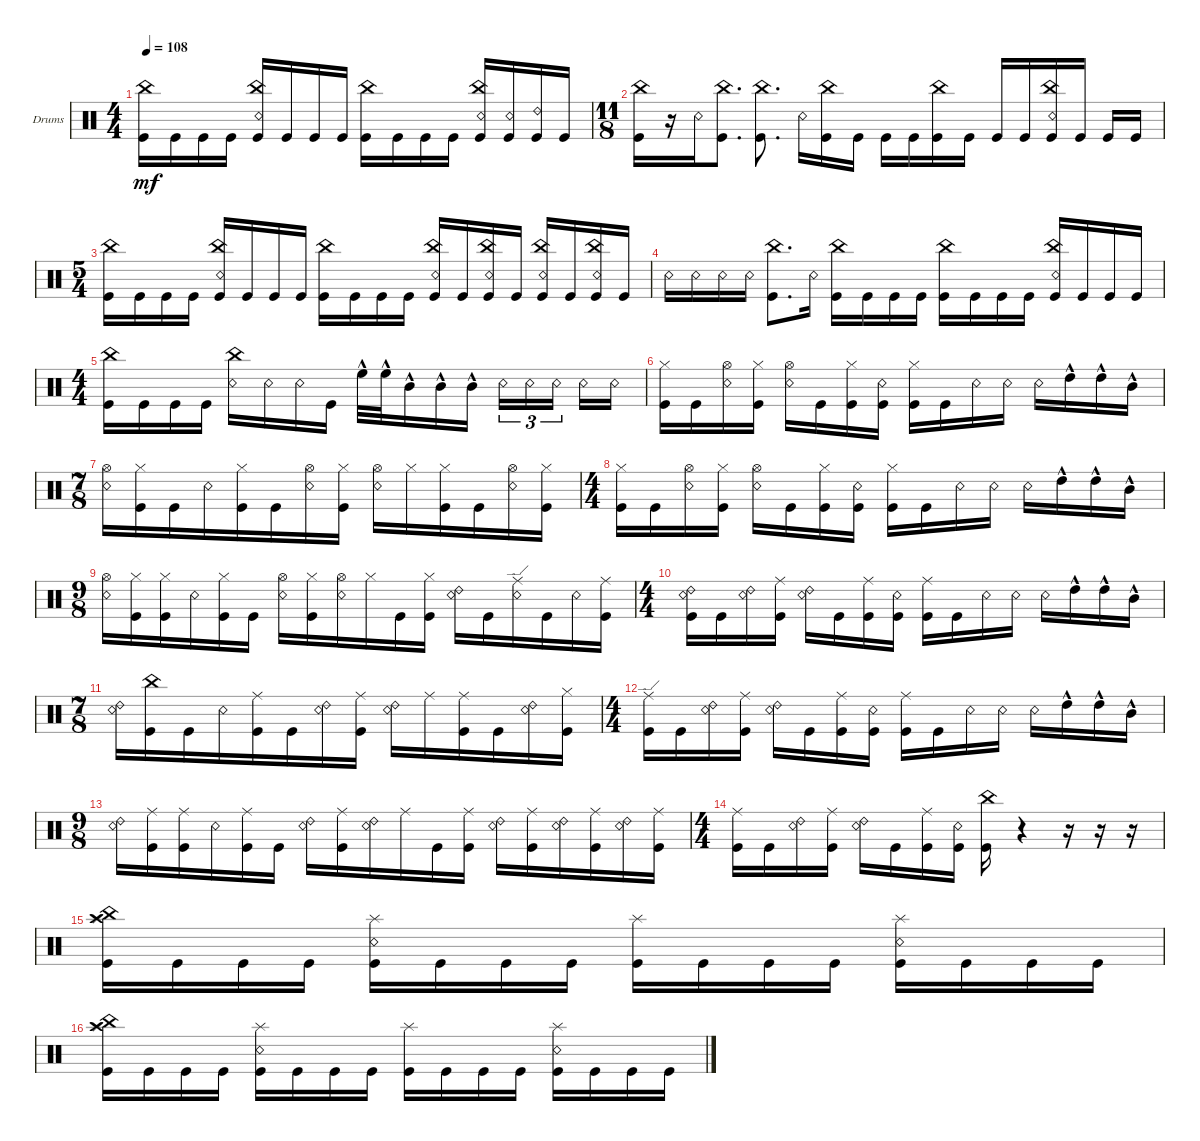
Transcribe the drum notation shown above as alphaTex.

\defaultSystemsLayout 4
\bracketExtendMode groupsimilarinstruments
\firstSystemTrackNameOrientation horizontal
\otherSystemsTrackNameOrientation horizontal
\track ("Drumkit" "Drums") {solo instrument percussion}
\staff {score}
\articulation defaults
\ts (4 4)
\tempo 108
\clef neutral
\ks c
("Kick (hit)" "China (hit)").16{dy mf} "Kick (hit)".16 "Kick (hit)".16 "Kick (hit)".16 ("Kick (hit)" "China (hit)" "Snare (rim shot)").16 "Kick (hit)".16 "Kick (hit)".16 "Kick (hit)".16 ("Kick (hit)" "China (hit)").16 "Kick (hit)".16 "Kick (hit)".16 "Kick (hit)".16 ("Kick (hit)" "China (hit)" "Snare (rim shot)").16 ("Kick (hit)" "Snare (rim shot)").16 ("Kick (hit)" "Ride (bell) 2").16 "Kick (hit)".16 |
\ts (11 8)
("Kick (hit)" "China (hit)").16 r.16 "Snare (rim shot)".16 ("Kick (hit)" "China (hit)").8{d} ("Kick (hit)" "China (hit)").8{d} "Snare (rim shot)".16 ("Kick (hit)" "China (hit)").16 "Kick (hit)".16 "Kick (hit)".16 "Kick (hit)".16 ("Kick (hit)" "China (hit)").16 "Kick (hit)".16 "Kick (hit)".16 "Kick (hit)".16 ("Kick (hit)" "China (hit)" "Snare (rim shot)").16 "Kick (hit)".16 "Kick (hit)".16 "Kick (hit)".16 |
\ts (5 4)
("Kick (hit)" "China (hit)").16 "Kick (hit)".16 "Kick (hit)".16 "Kick (hit)".16 ("Kick (hit)" "China (hit)" "Snare (rim shot)").16 "Kick (hit)".16 "Kick (hit)".16 "Kick (hit)".16 ("Kick (hit)" "China (hit)").16 "Kick (hit)".16 "Kick (hit)".16 "Kick (hit)".16 ("Kick (hit)" "China (hit)" "Snare (rim shot)").16 "Kick (hit)".16 ("Kick (hit)" "China (hit)" "Snare (rim shot)").16 "Kick (hit)".16 ("Kick (hit)" "China (hit)" "Snare (rim shot)").16 "Kick (hit)".16 ("Kick (hit)" "China (hit)" "Snare (rim shot)").16 "Kick (hit)".16 |
"Snare (rim shot)".16 "Snare (rim shot)".16 "Snare (rim shot)".16 "Snare (rim shot)".16 ("Kick (hit)" "China (hit)").8{d} "Snare (rim shot)".16 ("Kick (hit)" "China (hit)").16 "Kick (hit)".16 "Kick (hit)".16 "Kick (hit)".16 ("Kick (hit)" "China (hit)").16 "Kick (hit)".16 "Kick (hit)".16 "Kick (hit)".16 ("Kick (hit)" "China (hit)" "Snare (rim shot)").16 "Kick (hit)".16 "Kick (hit)".16 "Kick (hit)".16 |
\ts (4 4)
("Kick (hit)" "China (hit)").16 "Kick (hit)".16 "Kick (hit)".16 "Kick (hit)".16 ("China (hit)" "Snare (rim shot)").16 "Snare (rim shot)".16 "Snare (rim shot)".16 "Kick (hit)".16 "High Floor Tom (hit)"{hac}.32 "High Floor Tom (hit)"{hac}.32 "Mid Tom (hit)"{hac}.16 "Mid Tom (hit)"{hac}.16 "Mid Tom (hit)"{hac}.16 "Snare (rim shot)".16{tu (3 2)} "Snare (rim shot)".16{tu (3 2)} "Snare (rim shot)".16{tu (3 2)} "Snare (rim shot)".16 "Snare (rim shot)".16 |
("Kick (hit)" "Hi-Hat (closed)").16 "Kick (hit)".16 ("Hi-Hat (open)" "Snare (rim shot)").16 ("Hi-Hat (closed)" "Kick (hit)").16 ("Snare (rim shot)" "Hi-Hat (open)").16 "Kick (hit)".16 ("Kick (hit)" "Hi-Hat (closed)").16 ("Kick (hit)" "Snare (rim shot)").16 ("Kick (hit)" "Hi-Hat (closed)").16 "Kick (hit)".16 "Snare (rim shot)".16 "Snare (rim shot)".16 "Snare (rim shot)".16 "High Tom (hit)"{hac}.16 "High Tom (hit)"{hac}.16 "Mid Tom (hit)"{hac}.16 |
\ts (7 8)
("Snare (rim shot)" "Hi-Hat (open)").16 ("Kick (hit)" "Hi-Hat (closed)").16 "Kick (hit)".16 "Snare (rim shot)".16 ("Kick (hit)" "Hi-Hat (closed)").16 "Kick (hit)".16 ("Snare (rim shot)" "Hi-Hat (open)").16 ("Kick (hit)" "Hi-Hat (closed)").16 ("Snare (rim shot)" "Hi-Hat (open)").16 "Hi-Hat (closed)".16 ("Kick (hit)" "Hi-Hat (closed)").16 "Kick (hit)".16 ("Snare (rim shot)" "Hi-Hat (open)").16 ("Kick (hit)" "Hi-Hat (closed)").16 |
\ts (4 4)
("Kick (hit)" "Hi-Hat (closed)").16 "Kick (hit)".16 ("Hi-Hat (open)" "Snare (rim shot)").16 ("Hi-Hat (closed)" "Kick (hit)").16 ("Snare (rim shot)" "Hi-Hat (open)").16 "Kick (hit)".16 ("Kick (hit)" "Hi-Hat (closed)").16 ("Kick (hit)" "Snare (rim shot)").16 ("Kick (hit)" "Hi-Hat (closed)").16 "Kick (hit)".16 "Snare (rim shot)".16 "Snare (rim shot)".16 "Snare (rim shot)".16 "High Tom (hit)"{hac}.16 "High Tom (hit)"{hac}.16 "Mid Tom (hit)"{hac}.16 |
\ts (9 8)
("Snare (rim shot)" "Hi-Hat (open)").16 ("Kick (hit)" "Hi-Hat (closed)").16 ("Kick (hit)" "Hi-Hat (closed)").16 "Snare (rim shot)".16 ("Kick (hit)" "Hi-Hat (closed)").16 "Kick (hit)".16 ("Snare (rim shot)" "Hi-Hat (open)").16 ("Kick (hit)" "Hi-Hat (closed)").16 ("Snare (rim shot)" "Hi-Hat (open)").16 "Hi-Hat (closed)".16 "Kick (hit)".16 ("Kick (hit)" "Hi-Hat (closed)").16 ("Snare (rim shot)" "Ride (bell) 2").16 "Kick (hit)".16 ("Snare (rim shot)" "Ride (edge)").16 "Kick (hit)".16 "Snare (rim shot)".16 ("Kick (hit)" "Ride (middle)").16 |
\ts (4 4)
("Kick (hit)" "Snare (rim shot)" "Ride (bell) 2").16 "Kick (hit)".16 ("Snare (rim shot)" "Ride (bell) 2").16 ("Kick (hit)" "Ride (middle)").16 ("Snare (rim shot)" "Ride (bell) 2").16 "Kick (hit)".16 ("Kick (hit)" "Ride (middle)").16 ("Kick (hit)" "Snare (rim shot)").16 ("Kick (hit)" "Ride (middle)").16 "Kick (hit)".16 "Snare (rim shot)".16 "Snare (rim shot)".16 "Snare (rim shot)".16 "High Tom (hit)"{hac}.16 "High Tom (hit)"{hac}.16 "Mid Tom (hit)"{hac}.16 |
\ts (7 8)
("Snare (rim shot)" "Ride (bell) 2").16 ("Kick (hit)" "China (hit)").16 "Kick (hit)".16 "Snare (rim shot)".16 ("Kick (hit)" "Ride (middle)").16 "Kick (hit)".16 ("Snare (rim shot)" "Ride (bell) 2").16 ("Kick (hit)" "Ride (middle)").16 ("Snare (rim shot)" "Ride (bell) 2").16 "Ride (middle)".16 ("Kick (hit)" "Ride (middle)").16 "Kick (hit)".16 ("Snare (rim shot)" "Ride (bell) 2").16 ("Kick (hit)" "Hi-Hat (closed)").16 |
\ts (4 4)
("Kick (hit)" "Ride (edge)").16 "Kick (hit)".16 ("Snare (rim shot)" "Ride (bell) 2").16 ("Kick (hit)" "Ride (middle)").16 ("Snare (rim shot)" "Ride (bell) 2").16 "Kick (hit)".16 ("Kick (hit)" "Ride (middle)").16 ("Kick (hit)" "Snare (rim shot)").16 ("Kick (hit)" "Ride (middle)").16 "Kick (hit)".16 "Snare (rim shot)".16 "Snare (rim shot)".16 "Snare (rim shot)".16 "High Tom (hit)"{hac}.16 "High Tom (hit)"{hac}.16 "Mid Tom (hit)"{hac}.16 |
\ts (9 8)
("Snare (rim shot)" "Ride (bell) 2").16 ("Kick (hit)" "Ride (middle)").16 ("Kick (hit)" "Ride (middle)").16 "Snare (rim shot)".16 ("Kick (hit)" "Ride (middle)").16 "Kick (hit)".16 ("Snare (rim shot)" "Ride (bell) 2").16 ("Kick (hit)" "Ride (middle)").16 ("Snare (rim shot)" "Ride (bell) 2").16 "Ride (middle)".16 "Kick (hit)".16 ("Kick (hit)" "Ride (middle)").16 ("Snare (rim shot)" "Ride (bell) 2").16 ("Kick (hit)" "Ride (middle)").16 ("Snare (rim shot)" "Ride (bell) 2").16 ("Kick (hit)" "Ride (middle)").16 ("Snare (rim shot)" "Ride (bell) 2").16 ("Kick (hit)" "Ride (middle)").16 |
\ts (4 4)
("Kick (hit)" "Ride (middle)").16 "Kick (hit)".16 ("Snare (rim shot)" "Ride (bell) 2").16 ("Kick (hit)" "Ride (middle)").16 ("Snare (rim shot)" "Ride (bell) 2").16 "Kick (hit)".16 ("Kick (hit)" "Ride (middle)").16 ("Kick (hit)" "Snare (rim shot)").16 ("Kick (hit)" "China (hit)").16 r.4 r.16 r.16 r.16 |
("Kick (hit)" "China (hit)" "Splash (hit)" "Crash high (hit)").16 "Kick (hit)".16 "Kick (hit)".16 "Kick (hit)".16 ("Kick (hit)" "Snare (rim shot)" "Splash (hit)").16 "Kick (hit)".16 "Kick (hit)".16 "Kick (hit)".16 ("Kick (hit)" "Splash (hit)").16 "Kick (hit)".16 "Kick (hit)".16 "Kick (hit)".16 ("Kick (hit)" "Snare (rim shot)" "Splash (hit)").16 "Kick (hit)".16 "Kick (hit)".16 "Kick (hit)".16 |
("Kick (hit)" "China (hit)" "Splash (hit)" "Crash high (hit)").16 "Kick (hit)".16 "Kick (hit)".16 "Kick (hit)".16 ("Kick (hit)" "Snare (rim shot)" "Splash (hit)").16 "Kick (hit)".16 "Kick (hit)".16 "Kick (hit)".16 ("Kick (hit)" "Splash (hit)").16 "Kick (hit)".16 "Kick (hit)".16 "Kick (hit)".16 ("Kick (hit)" "Snare (rim shot)" "Splash (hit)").16 "Kick (hit)".16 "Kick (hit)".16 "Kick (hit)".16
